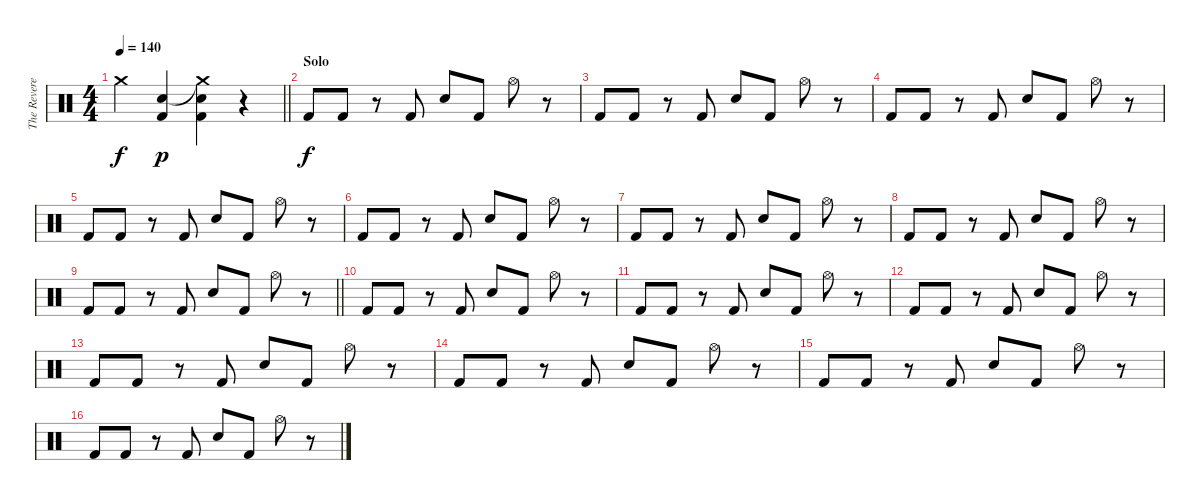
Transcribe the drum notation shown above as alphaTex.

\track ("The Reverend" "The Revere") {instrument percussion}
\staff {score}
\articulation defaults
\ts (4 4)
\tempo 140
\clef neutral
\barLineRight lightlight
\ks c "Crash medium (hit)".4{dy f}
("Snare (hit) 2" "Kick (hit) 2").4{dy p} ("Crash medium (hit)"{t} "Snare (hit) 2" "Kick (hit) 2").4 r.4 |
\section ("" "Solo")
"Kick (hit) 2".8{dy f} "Kick (hit) 2".8 r.8 "Kick (hit) 2".8 "Snare (hit) 2".8 "Kick (hit) 2".8 "Hi-Hat (open)".8 r.8 |
"Kick (hit) 2".8 "Kick (hit) 2".8 r.8 "Kick (hit) 2".8 "Snare (hit) 2".8 "Kick (hit) 2".8 "Hi-Hat (open)".8 r.8 |
"Kick (hit) 2".8 "Kick (hit) 2".8 r.8 "Kick (hit) 2".8 "Snare (hit) 2".8 "Kick (hit) 2".8 "Hi-Hat (open)".8 r.8 |
"Kick (hit) 2".8 "Kick (hit) 2".8 r.8 "Kick (hit) 2".8 "Snare (hit) 2".8 "Kick (hit) 2".8 "Hi-Hat (open)".8 r.8 |
"Kick (hit) 2".8 "Kick (hit) 2".8 r.8 "Kick (hit) 2".8 "Snare (hit) 2".8 "Kick (hit) 2".8 "Hi-Hat (open)".8 r.8 |
"Kick (hit) 2".8 "Kick (hit) 2".8 r.8 "Kick (hit) 2".8 "Snare (hit) 2".8 "Kick (hit) 2".8 "Hi-Hat (open)".8 r.8 |
"Kick (hit) 2".8 "Kick (hit) 2".8 r.8 "Kick (hit) 2".8 "Snare (hit) 2".8 "Kick (hit) 2".8 "Hi-Hat (open)".8 r.8 |
\barLineRight lightlight "Kick (hit) 2".8 "Kick (hit) 2".8
r.8 "Kick (hit) 2".8 "Snare (hit) 2".8 "Kick (hit) 2".8 "Hi-Hat (open)".8 r.8 |
\section ("" "")
"Kick (hit) 2".8 "Kick (hit) 2".8 r.8 "Kick (hit) 2".8 "Snare (hit) 2".8 "Kick (hit) 2".8 "Hi-Hat (open)".8 r.8 |
"Kick (hit) 2".8 "Kick (hit) 2".8 r.8 "Kick (hit) 2".8 "Snare (hit) 2".8 "Kick (hit) 2".8 "Hi-Hat (open)".8 r.8 |
"Kick (hit) 2".8 "Kick (hit) 2".8 r.8 "Kick (hit) 2".8 "Snare (hit) 2".8 "Kick (hit) 2".8 "Hi-Hat (open)".8 r.8 |
"Kick (hit) 2".8 "Kick (hit) 2".8 r.8 "Kick (hit) 2".8 "Snare (hit) 2".8 "Kick (hit) 2".8 "Hi-Hat (open)".8 r.8 |
"Kick (hit) 2".8 "Kick (hit) 2".8 r.8 "Kick (hit) 2".8 "Snare (hit) 2".8 "Kick (hit) 2".8 "Hi-Hat (open)".8 r.8 |
"Kick (hit) 2".8 "Kick (hit) 2".8 r.8 "Kick (hit) 2".8 "Snare (hit) 2".8 "Kick (hit) 2".8 "Hi-Hat (open)".8 r.8 |
"Kick (hit) 2".8 "Kick (hit) 2".8 r.8 "Kick (hit) 2".8 "Snare (hit) 2".8 "Kick (hit) 2".8 "Hi-Hat (open)".8 r.8
